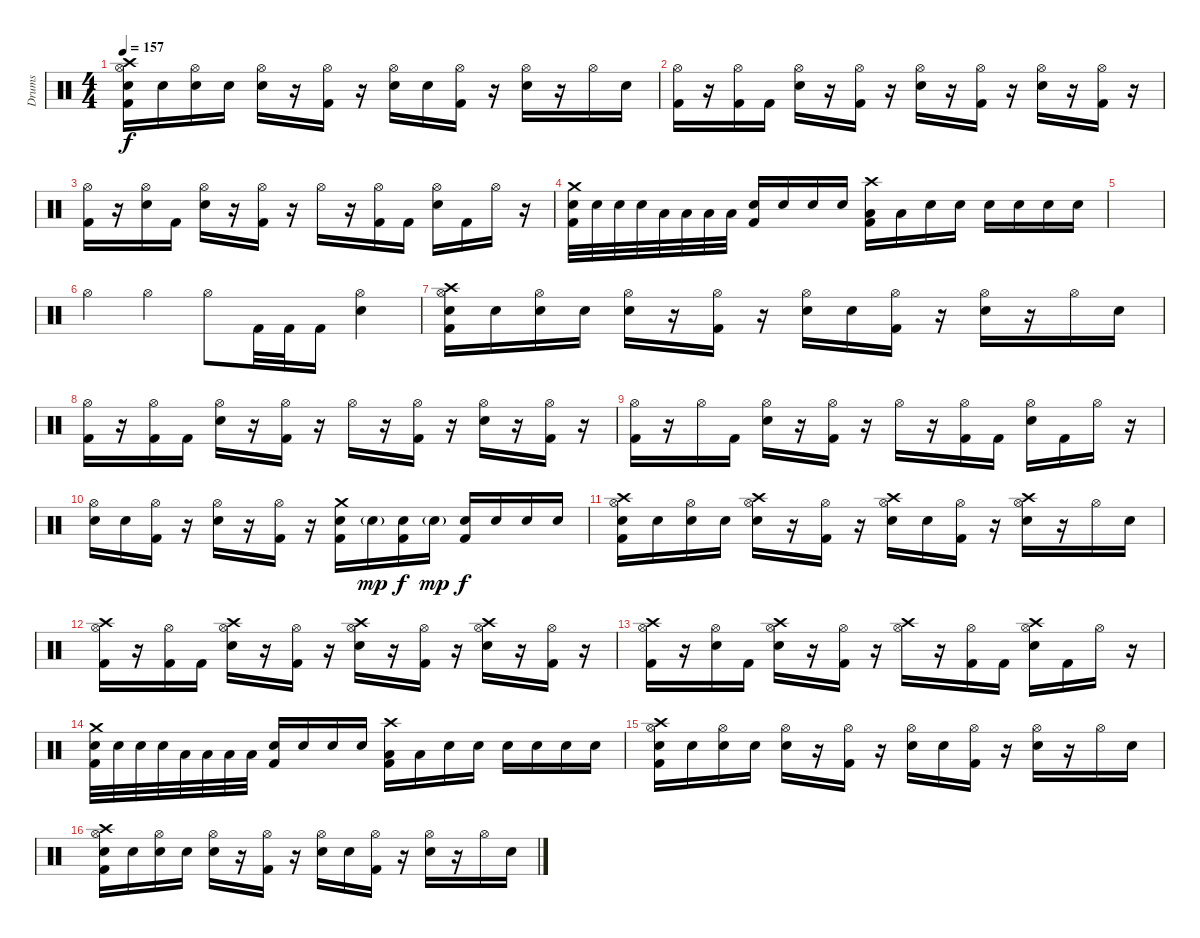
\track ("Drums" "Drums") {instrument percussion}
\staff {score}
\articulation defaults
\ts (4 4)
\tempo 157
\clef neutral
\ks c
("Hi-Hat (open)" "Crash high (hit)" "Electric Snare (hit)" "Kick (hit) 2").16{dy f} "Electric Snare (hit)".16 ("Hi-Hat (open)" "Electric Snare (hit)").16 "Electric Snare (hit)".16 ("Hi-Hat (open)" "Electric Snare (hit)").16 r.16 ("Hi-Hat (open)" "Kick (hit) 2").16 r.16 ("Hi-Hat (open)" "Electric Snare (hit)").16 "Electric Snare (hit)".16 ("Hi-Hat (open)" "Kick (hit) 2").16 r.16 ("Hi-Hat (open)" "Electric Snare (hit)").16 r.16 "Hi-Hat (open)".16 "Electric Snare (hit)".16 |
("Hi-Hat (open)" "Kick (hit) 2").16 r.16 ("Hi-Hat (open)" "Kick (hit) 2").16 "Kick (hit) 2".16 ("Hi-Hat (open)" "Electric Snare (hit)").16 r.16 ("Hi-Hat (open)" "Kick (hit) 2").16 r.16 ("Hi-Hat (open)" "Electric Snare (hit)").16 r.16 ("Hi-Hat (open)" "Kick (hit) 2").16 r.16 ("Hi-Hat (open)" "Electric Snare (hit)").16 r.16 ("Hi-Hat (open)" "Kick (hit) 2").16 r.16 |
("Hi-Hat (open)" "Kick (hit) 2").16 r.16 ("Hi-Hat (open)" "Electric Snare (hit)").16 "Kick (hit) 2".16 ("Hi-Hat (open)" "Electric Snare (hit)").16 r.16 ("Hi-Hat (open)" "Kick (hit) 2").16 r.16 "Hi-Hat (open)".16 r.16 ("Hi-Hat (open)" "Kick (hit) 2").16 "Kick (hit) 2".16 ("Hi-Hat (open)" "Electric Snare (hit)").16 "Kick (hit) 2".16 "Hi-Hat (open)".16 r.16 |
("Crash medium (hit)" "Electric Snare (hit)" "Kick (hit) 2").32 "Electric Snare (hit)".32 "Electric Snare (hit)".32 "Electric Snare (hit)".32 "Low Tom (hit)".32 "Low Tom (hit)".32 "Low Tom (hit)".32 "Low Tom (hit)".32 ("Electric Snare (hit)" "Kick (hit) 2").16 "Electric Snare (hit)".16 "Electric Snare (hit)".16 "Electric Snare (hit)".16 ("Crash high (hit)" "Low Tom (hit)" "Kick (hit) 2").16 "Low Tom (hit)".16 "Electric Snare (hit)".16 "Electric Snare (hit)".16 "Electric Snare (hit)".16 "Electric Snare (hit)".16 "Electric Snare (hit)".16 "Electric Snare (hit)".16 |
|
"Hi-Hat (open)".4 "Hi-Hat (open)".4 "Hi-Hat (open)".8 "Kick (hit) 2".32 "Kick (hit) 2".32 "Kick (hit) 2".16 ("Hi-Hat (open)" "Snare (hit) 2").4 |
("Hi-Hat (open)" "Crash high (hit)" "Electric Snare (hit)" "Kick (hit) 2").16 "Electric Snare (hit)".16 ("Hi-Hat (open)" "Electric Snare (hit)").16 "Electric Snare (hit)".16 ("Hi-Hat (open)" "Electric Snare (hit)").16 r.16 ("Hi-Hat (open)" "Kick (hit) 2").16 r.16 ("Hi-Hat (open)" "Electric Snare (hit)").16 "Electric Snare (hit)".16 ("Hi-Hat (open)" "Kick (hit) 2").16 r.16 ("Hi-Hat (open)" "Electric Snare (hit)").16 r.16 "Hi-Hat (open)".16 "Electric Snare (hit)".16 |
("Hi-Hat (open)" "Kick (hit) 2").16 r.16 ("Hi-Hat (open)" "Kick (hit) 2").16 "Kick (hit) 2".16 ("Hi-Hat (open)" "Electric Snare (hit)").16 r.16 ("Hi-Hat (open)" "Kick (hit) 2").16 r.16 "Hi-Hat (open)".16 r.16 ("Hi-Hat (open)" "Kick (hit) 2").16 r.16 ("Hi-Hat (open)" "Electric Snare (hit)").16 r.16 ("Hi-Hat (open)" "Kick (hit) 2").16 r.16 |
("Hi-Hat (open)" "Kick (hit) 2").16 r.16 "Hi-Hat (open)".16 "Kick (hit) 2".16 ("Hi-Hat (open)" "Electric Snare (hit)").16 r.16 ("Hi-Hat (open)" "Kick (hit) 2").16 r.16 "Hi-Hat (open)".16 r.16 ("Hi-Hat (open)" "Kick (hit) 2").16 "Kick (hit) 2".16 ("Hi-Hat (open)" "Electric Snare (hit)").16 "Kick (hit) 2".16 "Hi-Hat (open)".16 r.16 |
("Hi-Hat (open)" "Electric Snare (hit)").16 "Electric Snare (hit)".16 ("Hi-Hat (open)" "Kick (hit) 2").16 r.16 ("Hi-Hat (open)" "Electric Snare (hit)").16 r.16 ("Hi-Hat (open)" "Kick (hit) 2").16 r.16 ("Crash medium (hit)" "Electric Snare (hit)" "Kick (hit) 2").16 "Electric Snare (hit)"{g}.16{dy mp} ("Electric Snare (hit)" "Kick (hit) 2").16{dy f} "Electric Snare (hit)"{g}.16{dy mp} ("Electric Snare (hit)" "Kick (hit) 2").16{dy f} "Electric Snare (hit)".16 "Electric Snare (hit)".16 "Electric Snare (hit)".16 |
("Hi-Hat (open)" "Crash high (hit)" "Electric Snare (hit)" "Kick (hit) 2").16 "Electric Snare (hit)".16 ("Hi-Hat (open)" "Electric Snare (hit)").16 "Electric Snare (hit)".16 ("Hi-Hat (open)" "Crash high (hit)" "Electric Snare (hit)").16 r.16 ("Hi-Hat (open)" "Kick (hit) 2").16 r.16 ("Hi-Hat (open)" "Crash high (hit)" "Electric Snare (hit)").16 "Electric Snare (hit)".16 ("Hi-Hat (open)" "Kick (hit) 2").16 r.16 ("Hi-Hat (open)" "Crash high (hit)" "Electric Snare (hit)").16 r.16 "Hi-Hat (open)".16 "Electric Snare (hit)".16 |
("Hi-Hat (open)" "Crash high (hit)" "Kick (hit) 2").16 r.16 ("Hi-Hat (open)" "Kick (hit) 2").16 "Kick (hit) 2".16 ("Hi-Hat (open)" "Crash high (hit)" "Electric Snare (hit)").16 r.16 ("Hi-Hat (open)" "Kick (hit) 2").16 r.16 ("Hi-Hat (open)" "Crash high (hit)" "Electric Snare (hit)").16 r.16 ("Hi-Hat (open)" "Kick (hit) 2").16 r.16 ("Hi-Hat (open)" "Crash high (hit)" "Electric Snare (hit)").16 r.16 ("Hi-Hat (open)" "Kick (hit) 2").16 r.16 |
("Hi-Hat (open)" "Crash high (hit)" "Kick (hit) 2").16 r.16 ("Hi-Hat (open)" "Electric Snare (hit)").16 "Kick (hit) 2".16 ("Hi-Hat (open)" "Crash high (hit)" "Electric Snare (hit)").16 r.16 ("Hi-Hat (open)" "Kick (hit) 2").16 r.16 ("Hi-Hat (open)" "Crash high (hit)").16 r.16 ("Hi-Hat (open)" "Kick (hit) 2").16 "Kick (hit) 2".16 ("Hi-Hat (open)" "Crash high (hit)" "Electric Snare (hit)").16 "Kick (hit) 2".16 "Hi-Hat (open)".16 r.16 |
("Crash medium (hit)" "Electric Snare (hit)" "Kick (hit) 2").32 "Electric Snare (hit)".32 "Electric Snare (hit)".32 "Electric Snare (hit)".32 "Low Tom (hit)".32 "Low Tom (hit)".32 "Low Tom (hit)".32 "Low Tom (hit)".32 ("Electric Snare (hit)" "Kick (hit) 2").16 "Electric Snare (hit)".16 "Electric Snare (hit)".16 "Electric Snare (hit)".16 ("Crash high (hit)" "Low Tom (hit)" "Kick (hit) 2").16 "Low Tom (hit)".16 "Electric Snare (hit)".16 "Electric Snare (hit)".16 "Electric Snare (hit)".16 "Electric Snare (hit)".16 "Electric Snare (hit)".16 "Electric Snare (hit)".16 |
("Hi-Hat (open)" "Crash high (hit)" "Electric Snare (hit)" "Kick (hit) 2").16 "Electric Snare (hit)".16 ("Hi-Hat (open)" "Electric Snare (hit)").16 "Electric Snare (hit)".16 ("Hi-Hat (open)" "Electric Snare (hit)").16 r.16 ("Hi-Hat (open)" "Kick (hit) 2").16 r.16 ("Hi-Hat (open)" "Electric Snare (hit)").16 "Electric Snare (hit)".16 ("Hi-Hat (open)" "Kick (hit) 2").16 r.16 ("Hi-Hat (open)" "Electric Snare (hit)").16 r.16 "Hi-Hat (open)".16 "Electric Snare (hit)".16 |
("Hi-Hat (open)" "Crash high (hit)" "Electric Snare (hit)" "Kick (hit) 2").16 "Electric Snare (hit)".16 ("Hi-Hat (open)" "Electric Snare (hit)").16 "Electric Snare (hit)".16 ("Hi-Hat (open)" "Electric Snare (hit)").16 r.16 ("Hi-Hat (open)" "Kick (hit) 2").16 r.16 ("Hi-Hat (open)" "Electric Snare (hit)").16 "Electric Snare (hit)".16 ("Hi-Hat (open)" "Kick (hit) 2").16 r.16 ("Hi-Hat (open)" "Electric Snare (hit)").16 r.16 "Hi-Hat (open)".16 "Electric Snare (hit)".16
